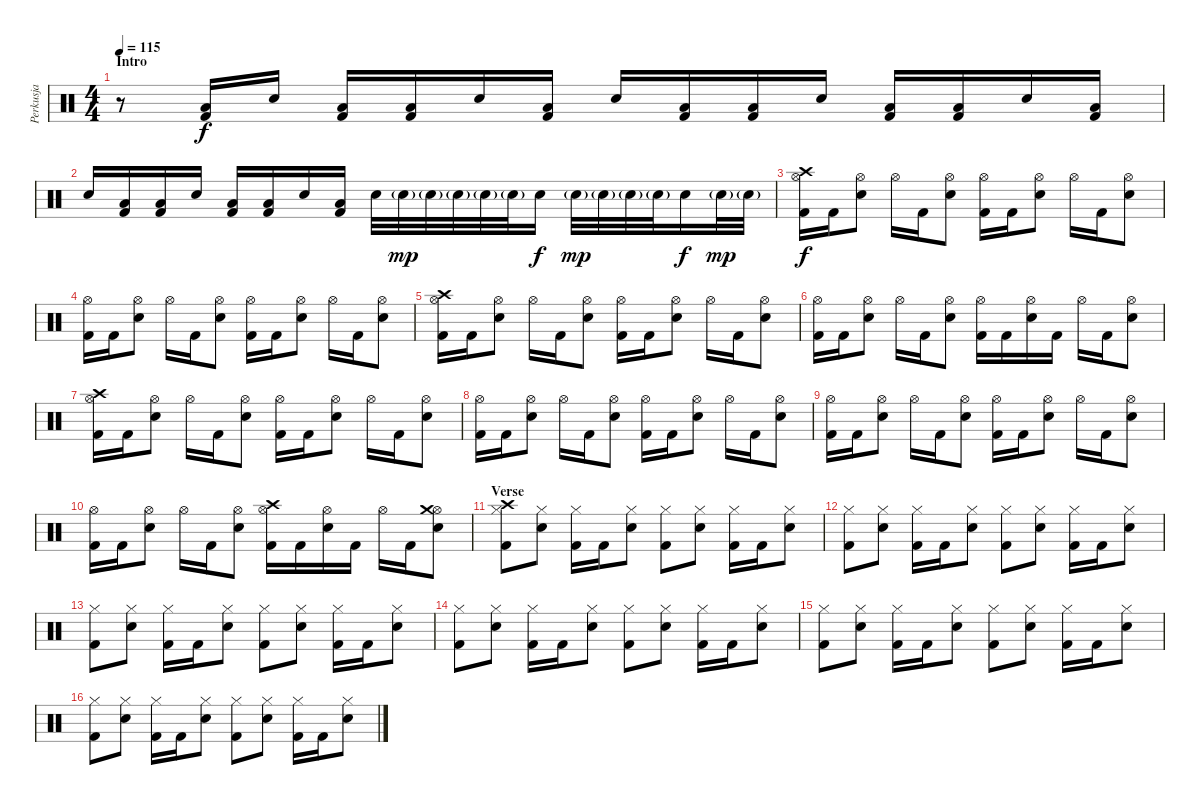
\track ("Perkusja" "Perkusja") {instrument percussion}
\staff {score}
\articulation defaults
\ts (4 4)
\section ("" "Intro")
\tempo 115
\clef neutral
\ks c
r.8{dy f} ("Low Tom (hit)" "Kick (hit) 2").16 "Electric Snare (hit)".16 ("Low Tom (hit)" "Kick (hit) 2").16 ("Low Tom (hit)" "Kick (hit) 2").16 "Electric Snare (hit)".16 ("Low Tom (hit)" "Kick (hit) 2").16 "Electric Snare (hit)".16 ("Low Tom (hit)" "Kick (hit) 2").16 ("Low Tom (hit)" "Kick (hit) 2").16 "Electric Snare (hit)".16 ("Low Tom (hit)" "Kick (hit) 2").16 ("Low Tom (hit)" "Kick (hit) 2").16 "Electric Snare (hit)".16 ("Low Tom (hit)" "Kick (hit) 2").16 |
"Electric Snare (hit)".16 ("Low Tom (hit)" "Kick (hit) 2").16 ("Low Tom (hit)" "Kick (hit) 2").16 "Electric Snare (hit)".16 ("Low Tom (hit)" "Kick (hit) 2").16 ("Low Tom (hit)" "Kick (hit) 2").16 "Electric Snare (hit)".16 ("Low Tom (hit)" "Kick (hit) 2").16 "Electric Snare (hit)".32 "Electric Snare (hit)"{g}.32{dy mp} "Electric Snare (hit)"{g}.32 "Electric Snare (hit)"{g}.32 "Electric Snare (hit)"{g}.32 "Electric Snare (hit)"{g}.32 "Electric Snare (hit)".16{dy f} "Electric Snare (hit)"{g}.32{dy mp} "Electric Snare (hit)"{g}.32 "Electric Snare (hit)"{g}.32 "Electric Snare (hit)"{g}.32 "Electric Snare (hit)".16{dy f} "Electric Snare (hit)"{g}.32{dy mp} "Electric Snare (hit)"{g}.32 |
("Hi-Hat (open)" "Kick (hit) 2" "Crash high (hit)").16{dy f} "Kick (hit) 2".16 ("Hi-Hat (open)" "Electric Snare (hit)").8 "Hi-Hat (open)".16 "Kick (hit) 2".16 ("Hi-Hat (open)" "Electric Snare (hit)").8 ("Hi-Hat (open)" "Kick (hit) 2").16 "Kick (hit) 2".16 ("Hi-Hat (open)" "Electric Snare (hit)").8 "Hi-Hat (open)".16 "Kick (hit) 2".16 ("Hi-Hat (open)" "Electric Snare (hit)").8 |
("Hi-Hat (open)" "Kick (hit) 2").16 "Kick (hit) 2".16 ("Hi-Hat (open)" "Electric Snare (hit)").8 "Hi-Hat (open)".16 "Kick (hit) 2".16 ("Hi-Hat (open)" "Electric Snare (hit)").8 ("Hi-Hat (open)" "Kick (hit) 2").16 "Kick (hit) 2".16 ("Hi-Hat (open)" "Electric Snare (hit)").8 "Hi-Hat (open)".16 "Kick (hit) 2".16 ("Hi-Hat (open)" "Electric Snare (hit)").8 |
("Hi-Hat (open)" "Kick (hit) 2" "Crash high (hit)").16 "Kick (hit) 2".16 ("Hi-Hat (open)" "Electric Snare (hit)").8 "Hi-Hat (open)".16 "Kick (hit) 2".16 ("Hi-Hat (open)" "Electric Snare (hit)").8 ("Hi-Hat (open)" "Kick (hit) 2").16 "Kick (hit) 2".16 ("Hi-Hat (open)" "Electric Snare (hit)").8 "Hi-Hat (open)".16 "Kick (hit) 2".16 ("Hi-Hat (open)" "Electric Snare (hit)").8 |
("Hi-Hat (open)" "Kick (hit) 2").16 "Kick (hit) 2".16 ("Hi-Hat (open)" "Electric Snare (hit)").8 "Hi-Hat (open)".16 "Kick (hit) 2".16 ("Hi-Hat (open)" "Electric Snare (hit)").8 ("Hi-Hat (open)" "Kick (hit) 2").16 "Kick (hit) 2".16 ("Hi-Hat (open)" "Electric Snare (hit)").16 "Kick (hit) 2".16 "Hi-Hat (open)".16 "Kick (hit) 2".16 ("Hi-Hat (open)" "Electric Snare (hit)").8 |
("Hi-Hat (open)" "Kick (hit) 2" "Crash high (hit)").16 "Kick (hit) 2".16 ("Hi-Hat (open)" "Electric Snare (hit)").8 "Hi-Hat (open)".16 "Kick (hit) 2".16 ("Hi-Hat (open)" "Electric Snare (hit)").8 ("Hi-Hat (open)" "Kick (hit) 2").16 "Kick (hit) 2".16 ("Hi-Hat (open)" "Electric Snare (hit)").8 "Hi-Hat (open)".16 "Kick (hit) 2".16 ("Hi-Hat (open)" "Electric Snare (hit)").8 |
("Hi-Hat (open)" "Kick (hit) 2").16 "Kick (hit) 2".16 ("Hi-Hat (open)" "Electric Snare (hit)").8 "Hi-Hat (open)".16 "Kick (hit) 2".16 ("Hi-Hat (open)" "Electric Snare (hit)").8 ("Hi-Hat (open)" "Kick (hit) 2").16 "Kick (hit) 2".16 ("Hi-Hat (open)" "Electric Snare (hit)").8 "Hi-Hat (open)".16 "Kick (hit) 2".16 ("Hi-Hat (open)" "Electric Snare (hit)").8 |
("Hi-Hat (open)" "Kick (hit) 2").16 "Kick (hit) 2".16 ("Hi-Hat (open)" "Electric Snare (hit)").8 "Hi-Hat (open)".16 "Kick (hit) 2".16 ("Hi-Hat (open)" "Electric Snare (hit)").8 ("Hi-Hat (open)" "Kick (hit) 2").16 "Kick (hit) 2".16 ("Hi-Hat (open)" "Electric Snare (hit)").8 "Hi-Hat (open)".16 "Kick (hit) 2".16 ("Hi-Hat (open)" "Electric Snare (hit)").8 |
("Hi-Hat (open)" "Kick (hit) 2").16 "Kick (hit) 2".16 ("Hi-Hat (open)" "Electric Snare (hit)").8 "Hi-Hat (open)".16 "Kick (hit) 2".16 ("Hi-Hat (open)" "Electric Snare (hit)").8 ("Hi-Hat (open)" "Kick (hit) 2" "Crash high (hit)").16 "Kick (hit) 2".16 ("Hi-Hat (open)" "Electric Snare (hit)").16 "Kick (hit) 2".16 "Hi-Hat (open)".16 "Kick (hit) 2".16 ("Hi-Hat (open)" "Electric Snare (hit)" "Crash medium (hit)").8 |
\section ("" "Verse")
("Hi-Hat (closed)" "Kick (hit) 2" "Crash high (hit)").8 ("Hi-Hat (closed)" "Electric Snare (hit)").8 ("Hi-Hat (closed)" "Kick (hit) 2").16 "Kick (hit) 2".16 ("Hi-Hat (closed)" "Electric Snare (hit)").8 ("Hi-Hat (closed)" "Kick (hit) 2").8 ("Hi-Hat (closed)" "Electric Snare (hit)").8 ("Hi-Hat (closed)" "Kick (hit) 2").16 "Kick (hit) 2".16 ("Hi-Hat (closed)" "Electric Snare (hit)").8 |
("Hi-Hat (closed)" "Kick (hit) 2").8 ("Hi-Hat (closed)" "Electric Snare (hit)").8 ("Hi-Hat (closed)" "Kick (hit) 2").16 "Kick (hit) 2".16 ("Hi-Hat (closed)" "Electric Snare (hit)").8 ("Hi-Hat (closed)" "Kick (hit) 2").8 ("Hi-Hat (closed)" "Electric Snare (hit)").8 ("Hi-Hat (closed)" "Kick (hit) 2").16 "Kick (hit) 2".16 ("Hi-Hat (closed)" "Electric Snare (hit)").8 |
("Hi-Hat (closed)" "Kick (hit) 2").8 ("Hi-Hat (closed)" "Electric Snare (hit)").8 ("Hi-Hat (closed)" "Kick (hit) 2").16 "Kick (hit) 2".16 ("Hi-Hat (closed)" "Electric Snare (hit)").8 ("Hi-Hat (closed)" "Kick (hit) 2").8 ("Hi-Hat (closed)" "Electric Snare (hit)").8 ("Hi-Hat (closed)" "Kick (hit) 2").16 "Kick (hit) 2".16 ("Hi-Hat (closed)" "Electric Snare (hit)").8 |
("Hi-Hat (closed)" "Kick (hit) 2").8 ("Hi-Hat (closed)" "Electric Snare (hit)").8 ("Hi-Hat (closed)" "Kick (hit) 2").16 "Kick (hit) 2".16 ("Hi-Hat (closed)" "Electric Snare (hit)").8 ("Hi-Hat (closed)" "Kick (hit) 2").8 ("Hi-Hat (closed)" "Electric Snare (hit)").8 ("Hi-Hat (closed)" "Kick (hit) 2").16 "Kick (hit) 2".16 ("Hi-Hat (closed)" "Electric Snare (hit)").8 |
("Hi-Hat (closed)" "Kick (hit) 2").8 ("Hi-Hat (closed)" "Electric Snare (hit)").8 ("Hi-Hat (closed)" "Kick (hit) 2").16 "Kick (hit) 2".16 ("Hi-Hat (closed)" "Electric Snare (hit)").8 ("Hi-Hat (closed)" "Kick (hit) 2").8 ("Hi-Hat (closed)" "Electric Snare (hit)").8 ("Hi-Hat (closed)" "Kick (hit) 2").16 "Kick (hit) 2".16 ("Hi-Hat (closed)" "Electric Snare (hit)").8 |
("Hi-Hat (closed)" "Kick (hit) 2").8 ("Hi-Hat (closed)" "Electric Snare (hit)").8 ("Hi-Hat (closed)" "Kick (hit) 2").16 "Kick (hit) 2".16 ("Hi-Hat (closed)" "Electric Snare (hit)").8 ("Hi-Hat (closed)" "Kick (hit) 2").8 ("Hi-Hat (closed)" "Electric Snare (hit)").8 ("Hi-Hat (closed)" "Kick (hit) 2").16 "Kick (hit) 2".16 ("Hi-Hat (closed)" "Electric Snare (hit)").8
